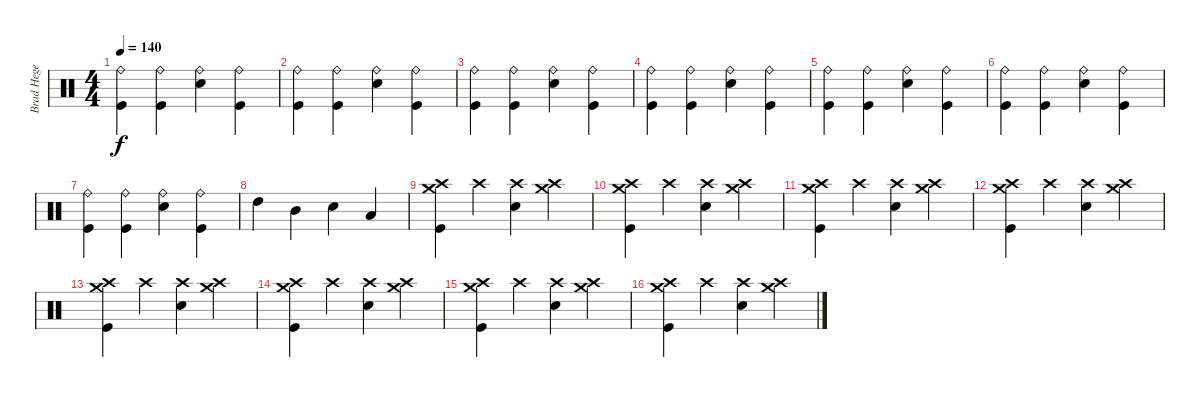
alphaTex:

\track ("Brad Hege" "Brad Hege") {instrument percussion}
\staff {score}
\articulation defaults
\ts (4 4)
\tempo 140
\clef neutral
\ks c
("Ride (bell)" "Kick (hit)").4{dy f} ("Ride (bell)" "Kick (hit)").4 ("Ride (bell)" "Snare (hit) 2").4 ("Ride (bell)" "Kick (hit)").4 |
("Ride (bell)" "Kick (hit)").4 ("Ride (bell)" "Kick (hit)").4 ("Ride (bell)" "Snare (hit) 2").4 ("Ride (bell)" "Kick (hit)").4 |
("Ride (bell)" "Kick (hit)").4 ("Ride (bell)" "Kick (hit)").4 ("Ride (bell)" "Snare (hit) 2").4 ("Ride (bell)" "Kick (hit)").4 |
("Ride (bell)" "Kick (hit)").4 ("Ride (bell)" "Kick (hit)").4 ("Ride (bell)" "Snare (hit) 2").4 ("Ride (bell)" "Kick (hit)").4 |
("Ride (bell)" "Kick (hit)").4 ("Ride (bell)" "Kick (hit)").4 ("Ride (bell)" "Snare (hit) 2").4 ("Ride (bell)" "Kick (hit)").4 |
("Ride (bell)" "Kick (hit)").4 ("Ride (bell)" "Kick (hit)").4 ("Ride (bell)" "Snare (hit) 2").4 ("Ride (bell)" "Kick (hit)").4 |
("Ride (bell)" "Kick (hit)").4 ("Ride (bell)" "Kick (hit)").4 ("Ride (bell)" "Snare (hit) 2").4 ("Ride (bell)" "Kick (hit)").4 |
"High Tom (hit)".4 "Mid Tom (hit)".4 "Snare (hit) 2".4 "Low Floor Tom (hit)".4 |
("Crash high (hit)" "Crash medium (hit)" "Kick (hit)").4 "Crash high (hit)".4 ("Crash high (hit)" "Snare (hit) 2").4 ("Crash high (hit)" "Crash medium (hit)").4 |
("Crash high (hit)" "Crash medium (hit)" "Kick (hit)").4 "Crash high (hit)".4 ("Crash high (hit)" "Snare (hit) 2").4 ("Crash high (hit)" "Crash medium (hit)").4 |
("Crash high (hit)" "Crash medium (hit)" "Kick (hit)").4 "Crash high (hit)".4 ("Crash high (hit)" "Snare (hit) 2").4 ("Crash high (hit)" "Crash medium (hit)").4 |
("Crash high (hit)" "Crash medium (hit)" "Kick (hit)").4 "Crash high (hit)".4 ("Crash high (hit)" "Snare (hit) 2").4 ("Crash high (hit)" "Crash medium (hit)").4 |
("Crash high (hit)" "Crash medium (hit)" "Kick (hit)").4 "Crash high (hit)".4 ("Crash high (hit)" "Snare (hit) 2").4 ("Crash high (hit)" "Crash medium (hit)").4 |
("Crash high (hit)" "Crash medium (hit)" "Kick (hit)").4 "Crash high (hit)".4 ("Crash high (hit)" "Snare (hit) 2").4 ("Crash high (hit)" "Crash medium (hit)").4 |
("Crash high (hit)" "Crash medium (hit)" "Kick (hit)").4 "Crash high (hit)".4 ("Crash high (hit)" "Snare (hit) 2").4 ("Crash high (hit)" "Crash medium (hit)").4 |
("Crash high (hit)" "Crash medium (hit)" "Kick (hit)").4 "Crash high (hit)".4 ("Crash high (hit)" "Snare (hit) 2").4 ("Crash high (hit)" "Crash medium (hit)").4
